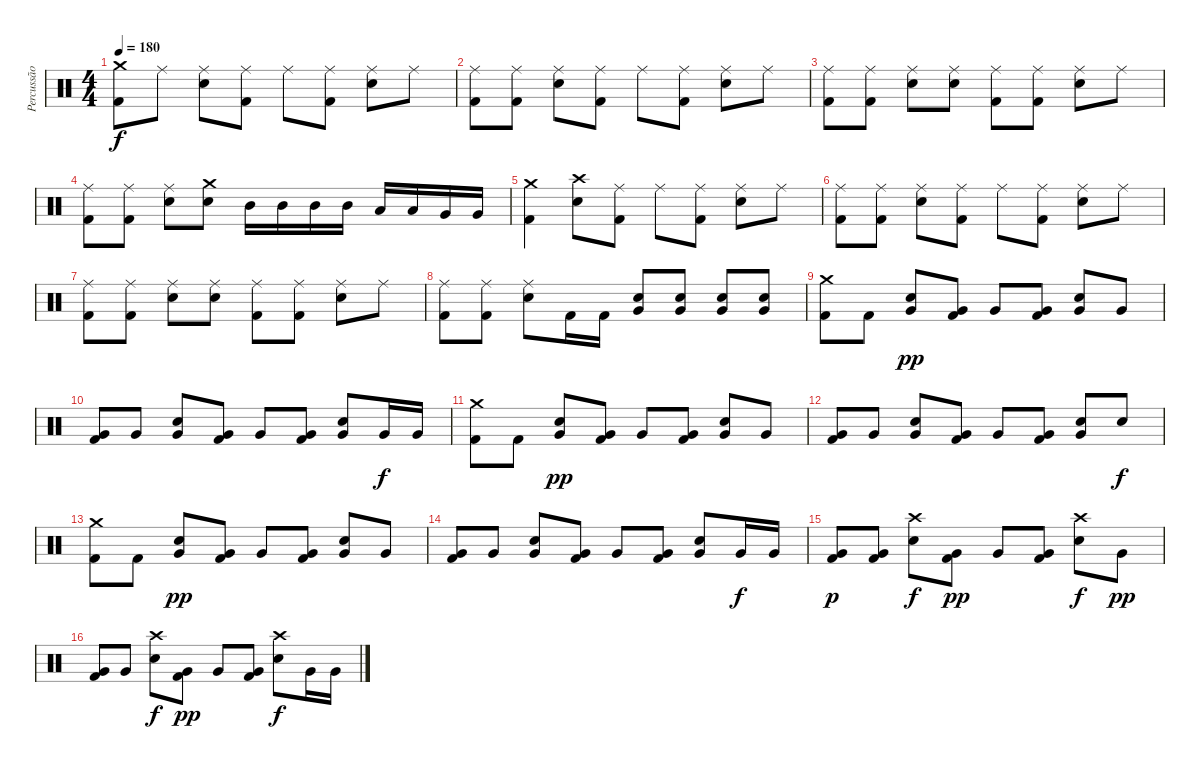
\track ("Percussão" "Percussão") {instrument percussion}
\staff {score}
\articulation defaults
\ts (4 4)
\tempo 180
\clef neutral
\ks c
("Crash medium (hit)" "Kick (hit) 2").8{dy f} "Ride (middle)".8 ("Ride (middle)" "Electric Snare (hit)").8 ("Ride (middle)" "Kick (hit) 2").8 "Ride (middle)".8 ("Ride (middle)" "Kick (hit) 2").8 ("Ride (middle)" "Electric Snare (hit)").8 "Ride (middle)".8 |
("Ride (middle)" "Kick (hit) 2").8 ("Ride (middle)" "Kick (hit) 2").8 ("Ride (middle)" "Electric Snare (hit)").8 ("Ride (middle)" "Kick (hit) 2").8 "Ride (middle)".8 ("Ride (middle)" "Kick (hit) 2").8 ("Ride (middle)" "Electric Snare (hit)").8 "Ride (middle)".8 |
("Ride (middle)" "Kick (hit) 2").8 ("Ride (middle)" "Kick (hit) 2").8 ("Ride (middle)" "Electric Snare (hit)").8 ("Ride (middle)" "Electric Snare (hit)").8 ("Ride (middle)" "Kick (hit) 2").8 ("Ride (middle)" "Kick (hit) 2").8 ("Ride (middle)" "Electric Snare (hit)").8 "Ride (middle)".8 |
("Ride (middle)" "Kick (hit) 2").8 ("Ride (middle)" "Kick (hit) 2").8 ("Ride (middle)" "Electric Snare (hit)").8 ("Crash medium (hit)" "Electric Snare (hit)").8 "Mid Tom (hit)".16 "Mid Tom (hit)".16 "Mid Tom (hit)".16 "Mid Tom (hit)".16 "Low Tom (hit)".16 "Low Tom (hit)".16 "Very Low Tom (hit)".16 "Very Low Tom (hit)".16 |
("Crash medium (hit)" "Kick (hit) 2").4 ("Crash high (hit)" "Electric Snare (hit)").8 ("Ride (middle)" "Kick (hit) 2").8 "Ride (middle)".8 ("Ride (middle)" "Kick (hit) 2").8 ("Ride (middle)" "Electric Snare (hit)").8 "Ride (middle)".8 |
("Ride (middle)" "Kick (hit) 2").8 ("Ride (middle)" "Kick (hit) 2").8 ("Ride (middle)" "Electric Snare (hit)").8 ("Ride (middle)" "Kick (hit) 2").8 "Ride (middle)".8 ("Ride (middle)" "Kick (hit) 2").8 ("Ride (middle)" "Electric Snare (hit)").8 "Ride (middle)".8 |
("Ride (middle)" "Kick (hit) 2").8 ("Ride (middle)" "Kick (hit) 2").8 ("Ride (middle)" "Electric Snare (hit)").8 ("Ride (middle)" "Electric Snare (hit)").8 ("Ride (middle)" "Kick (hit) 2").8 ("Ride (middle)" "Kick (hit) 2").8 ("Ride (middle)" "Electric Snare (hit)").8 "Ride (middle)".8 |
("Ride (middle)" "Kick (hit) 2").8 ("Ride (middle)" "Kick (hit) 2").8 ("Ride (middle)" "Electric Snare (hit)").8 "Kick (hit) 2".16 "Kick (hit) 2".16 ("Electric Snare (hit)" "Very Low Tom (hit)").8 ("Electric Snare (hit)" "Very Low Tom (hit)").8 ("Electric Snare (hit)" "Very Low Tom (hit)").8 ("Electric Snare (hit)" "Very Low Tom (hit)").8 |
("Crash medium (hit)" "Kick (hit) 2").8 "Kick (hit) 2".8 ("Very Low Tom (hit)" "Electric Snare (hit)").8{dy pp} ("Very Low Tom (hit)" "Kick (hit) 2").8 "Very Low Tom (hit)".8 ("Very Low Tom (hit)" "Kick (hit) 2").8 ("Very Low Tom (hit)" "Electric Snare (hit)").8 "Very Low Tom (hit)".8 |
("Very Low Tom (hit)" "Kick (hit) 2").8 "Very Low Tom (hit)".8 ("Very Low Tom (hit)" "Electric Snare (hit)").8 ("Very Low Tom (hit)" "Kick (hit) 2").8 "Very Low Tom (hit)".8 ("Very Low Tom (hit)" "Kick (hit) 2").8 ("Very Low Tom (hit)" "Electric Snare (hit)").8 "Very Low Tom (hit)".16{dy f} "Very Low Tom (hit)".16 |
("Crash medium (hit)" "Kick (hit) 2").8 "Kick (hit) 2".8 ("Very Low Tom (hit)" "Electric Snare (hit)").8{dy pp} ("Very Low Tom (hit)" "Kick (hit) 2").8 "Very Low Tom (hit)".8 ("Very Low Tom (hit)" "Kick (hit) 2").8 ("Very Low Tom (hit)" "Electric Snare (hit)").8 "Very Low Tom (hit)".8 |
("Very Low Tom (hit)" "Kick (hit) 2").8 "Very Low Tom (hit)".8 ("Very Low Tom (hit)" "Electric Snare (hit)").8 ("Very Low Tom (hit)" "Kick (hit) 2").8 "Very Low Tom (hit)".8 ("Very Low Tom (hit)" "Kick (hit) 2").8 ("Very Low Tom (hit)" "Electric Snare (hit)").8 "Electric Snare (hit)".8{dy f} |
("Crash medium (hit)" "Kick (hit) 2").8 "Kick (hit) 2".8 ("Very Low Tom (hit)" "Electric Snare (hit)").8{dy pp} ("Very Low Tom (hit)" "Kick (hit) 2").8 "Very Low Tom (hit)".8 ("Very Low Tom (hit)" "Kick (hit) 2").8 ("Very Low Tom (hit)" "Electric Snare (hit)").8 "Very Low Tom (hit)".8 |
("Very Low Tom (hit)" "Kick (hit) 2").8 "Very Low Tom (hit)".8 ("Very Low Tom (hit)" "Electric Snare (hit)").8 ("Very Low Tom (hit)" "Kick (hit) 2").8 "Very Low Tom (hit)".8 ("Very Low Tom (hit)" "Kick (hit) 2").8 ("Very Low Tom (hit)" "Electric Snare (hit)").8 "Very Low Tom (hit)".16{dy f} "Very Low Tom (hit)".16 |
("Very Low Tom (hit)" "Kick (hit) 2").8{dy p} ("Very Low Tom (hit)" "Kick (hit) 2").8 ("Crash high (hit)" "Electric Snare (hit)").8{dy f} ("Very Low Tom (hit)" "Kick (hit) 2").8{dy pp} "Very Low Tom (hit)".8 ("Very Low Tom (hit)" "Kick (hit) 2").8 ("Crash high (hit)" "Electric Snare (hit)").8{dy f} "Very Low Tom (hit)".8{dy pp} |
("Very Low Tom (hit)" "Kick (hit) 2").8 "Very Low Tom (hit)".8 ("Crash high (hit)" "Electric Snare (hit)").8{dy f} ("Very Low Tom (hit)" "Kick (hit) 2").8{dy pp} "Very Low Tom (hit)".8 ("Very Low Tom (hit)" "Kick (hit) 2").8 ("Crash high (hit)" "Electric Snare (hit)").8{dy f} "Very Low Tom (hit)".16 "Very Low Tom (hit)".16
